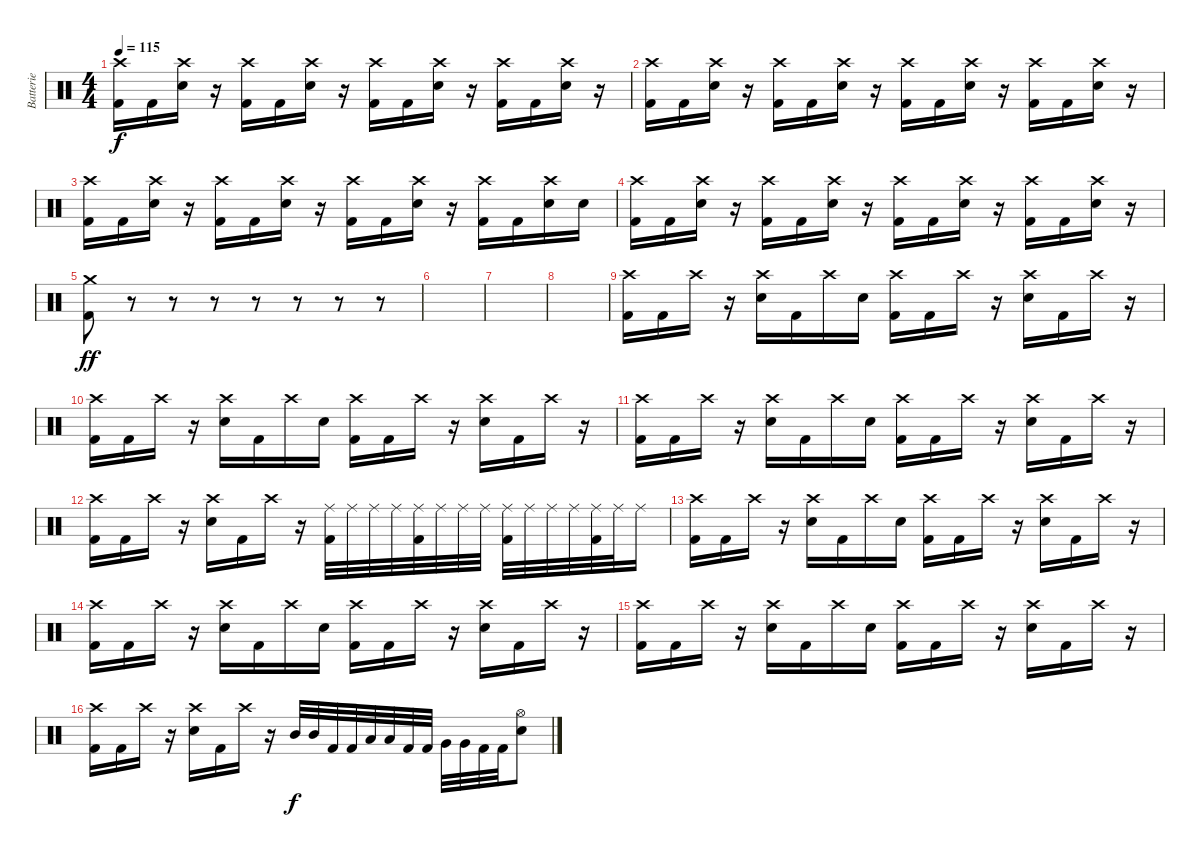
\track ("Batterie" "Batterie") {instrument percussion}
\staff {score}
\articulation defaults
\ts (4 4)
\tempo 115
\clef neutral
\ks c
("Kick (hit) 2" "Crash high (hit)").16{dy f} "Kick (hit) 2".16 ("Electric Snare (hit)" "Crash high (hit)").16 r.16 ("Kick (hit) 2" "Crash high (hit)").16 "Kick (hit) 2".16 ("Electric Snare (hit)" "Crash high (hit)").16 r.16 ("Kick (hit) 2" "Crash high (hit)").16 "Kick (hit) 2".16 ("Electric Snare (hit)" "Crash high (hit)").16 r.16 ("Kick (hit) 2" "Crash high (hit)").16 "Kick (hit) 2".16 ("Electric Snare (hit)" "Crash high (hit)").16 r.16 |
("Kick (hit) 2" "Crash high (hit)").16 "Kick (hit) 2".16 ("Electric Snare (hit)" "Crash high (hit)").16 r.16 ("Kick (hit) 2" "Crash high (hit)").16 "Kick (hit) 2".16 ("Electric Snare (hit)" "Crash high (hit)").16 r.16 ("Kick (hit) 2" "Crash high (hit)").16 "Kick (hit) 2".16 ("Electric Snare (hit)" "Crash high (hit)").16 r.16 ("Kick (hit) 2" "Crash high (hit)").16 "Kick (hit) 2".16 ("Electric Snare (hit)" "Crash high (hit)").16 r.16 |
("Kick (hit) 2" "Crash high (hit)").16 "Kick (hit) 2".16 ("Electric Snare (hit)" "Crash high (hit)").16 r.16 ("Kick (hit) 2" "Crash high (hit)").16 "Kick (hit) 2".16 ("Electric Snare (hit)" "Crash high (hit)").16 r.16 ("Kick (hit) 2" "Crash high (hit)").16 "Kick (hit) 2".16 ("Electric Snare (hit)" "Crash high (hit)").16 r.16 ("Kick (hit) 2" "Crash high (hit)").16 "Kick (hit) 2".16 ("Electric Snare (hit)" "Crash high (hit)").16 "Snare (hit)".16 |
("Kick (hit) 2" "Crash high (hit)").16 "Kick (hit) 2".16 ("Electric Snare (hit)" "Crash high (hit)").16 r.16 ("Kick (hit) 2" "Crash high (hit)").16 "Kick (hit) 2".16 ("Electric Snare (hit)" "Crash high (hit)").16 r.16 ("Kick (hit) 2" "Crash high (hit)").16 "Kick (hit) 2".16 ("Electric Snare (hit)" "Crash high (hit)").16 r.16 ("Kick (hit) 2" "Crash high (hit)").16 "Kick (hit) 2".16 ("Electric Snare (hit)" "Crash high (hit)").16 r.16 |
("Kick (hit) 2" "Crash medium (hit)").8{dy ff} r.8 r.8 r.8 r.8 r.8 r.8 r.8 |
|
|
|
("Kick (hit) 2" "Crash high (hit)").16 "Kick (hit) 2".16 "Crash high (hit)".16 r.16 ("Electric Snare (hit)" "Crash high (hit)").16 "Kick (hit) 2".16 "Crash high (hit)".16 "Electric Snare (hit)".16 ("Kick (hit) 2" "Crash high (hit)").16 "Kick (hit) 2".16 "Crash high (hit)".16 r.16 ("Electric Snare (hit)" "Crash high (hit)").16 "Kick (hit) 2".16 "Crash high (hit)".16 r.16 |
("Kick (hit) 2" "Crash high (hit)").16 "Kick (hit) 2".16 "Crash high (hit)".16 r.16 ("Electric Snare (hit)" "Crash high (hit)").16 "Kick (hit) 2".16 "Crash high (hit)".16 "Electric Snare (hit)".16 ("Kick (hit) 2" "Crash high (hit)").16 "Kick (hit) 2".16 "Crash high (hit)".16 r.16 ("Electric Snare (hit)" "Crash high (hit)").16 "Kick (hit) 2".16 "Crash high (hit)".16 r.16 |
("Kick (hit) 2" "Crash high (hit)").16 "Kick (hit) 2".16 "Crash high (hit)".16 r.16 ("Electric Snare (hit)" "Crash high (hit)").16 "Kick (hit) 2".16 "Crash high (hit)".16 "Electric Snare (hit)".16 ("Kick (hit) 2" "Crash high (hit)").16 "Kick (hit) 2".16 "Crash high (hit)".16 r.16 ("Electric Snare (hit)" "Crash high (hit)").16 "Kick (hit) 2".16 "Crash high (hit)".16 r.16 |
("Kick (hit) 2" "Crash high (hit)").16 "Kick (hit) 2".16 "Crash high (hit)".16 r.16 ("Electric Snare (hit)" "Crash high (hit)").16 "Kick (hit) 2".16 "Crash high (hit)".16 r.16 ("Kick (hit) 2" "Ride (middle)").32 "Ride (middle)".32 "Ride (middle)".32 "Ride (middle)".32 ("Kick (hit) 2" "Ride (middle)").32 "Ride (middle)".32 "Ride (middle)".32 "Ride (middle)".32 ("Kick (hit) 2" "Ride (middle)").32 "Ride (middle)".32 "Ride (middle)".32 "Ride (middle)".32 ("Kick (hit) 2" "Ride (middle)").32 "Ride (middle)".32 "Ride (middle)".16 |
("Kick (hit) 2" "Crash high (hit)").16 "Kick (hit) 2".16 "Crash high (hit)".16 r.16 ("Electric Snare (hit)" "Crash high (hit)").16 "Kick (hit) 2".16 "Crash high (hit)".16 "Electric Snare (hit)".16 ("Kick (hit) 2" "Crash high (hit)").16 "Kick (hit) 2".16 "Crash high (hit)".16 r.16 ("Electric Snare (hit)" "Crash high (hit)").16 "Kick (hit) 2".16 "Crash high (hit)".16 r.16 |
("Kick (hit) 2" "Crash high (hit)").16 "Kick (hit) 2".16 "Crash high (hit)".16 r.16 ("Electric Snare (hit)" "Crash high (hit)").16 "Kick (hit) 2".16 "Crash high (hit)".16 "Electric Snare (hit)".16 ("Kick (hit) 2" "Crash high (hit)").16 "Kick (hit) 2".16 "Crash high (hit)".16 r.16 ("Electric Snare (hit)" "Crash high (hit)").16 "Kick (hit) 2".16 "Crash high (hit)".16 r.16 |
("Kick (hit) 2" "Crash high (hit)").16 "Kick (hit) 2".16 "Crash high (hit)".16 r.16 ("Electric Snare (hit)" "Crash high (hit)").16 "Kick (hit) 2".16 "Crash high (hit)".16 "Electric Snare (hit)".16 ("Kick (hit) 2" "Crash high (hit)").16 "Kick (hit) 2".16 "Crash high (hit)".16 r.16 ("Electric Snare (hit)" "Crash high (hit)").16 "Kick (hit) 2".16 "Crash high (hit)".16 r.16 |
("Kick (hit) 2" "Crash high (hit)").16 "Kick (hit) 2".16 "Crash high (hit)".16 r.16 ("Electric Snare (hit)" "Crash high (hit)").16 "Kick (hit) 2".16 "Crash high (hit)".16 r.16 "Mid Tom (hit)".32{dy f} "Mid Tom (hit)".32 "Kick (hit) 2".32 "Kick (hit) 2".32 "Low Tom (hit)".32 "Low Tom (hit)".32 "Kick (hit) 2".32 "Kick (hit) 2".32 "Very Low Tom (hit)".32 "Very Low Tom (hit)".32 "Kick (hit) 2".32 "Kick (hit) 2".32 ("Electric Snare (hit)" "Hi-Hat (open)").8
